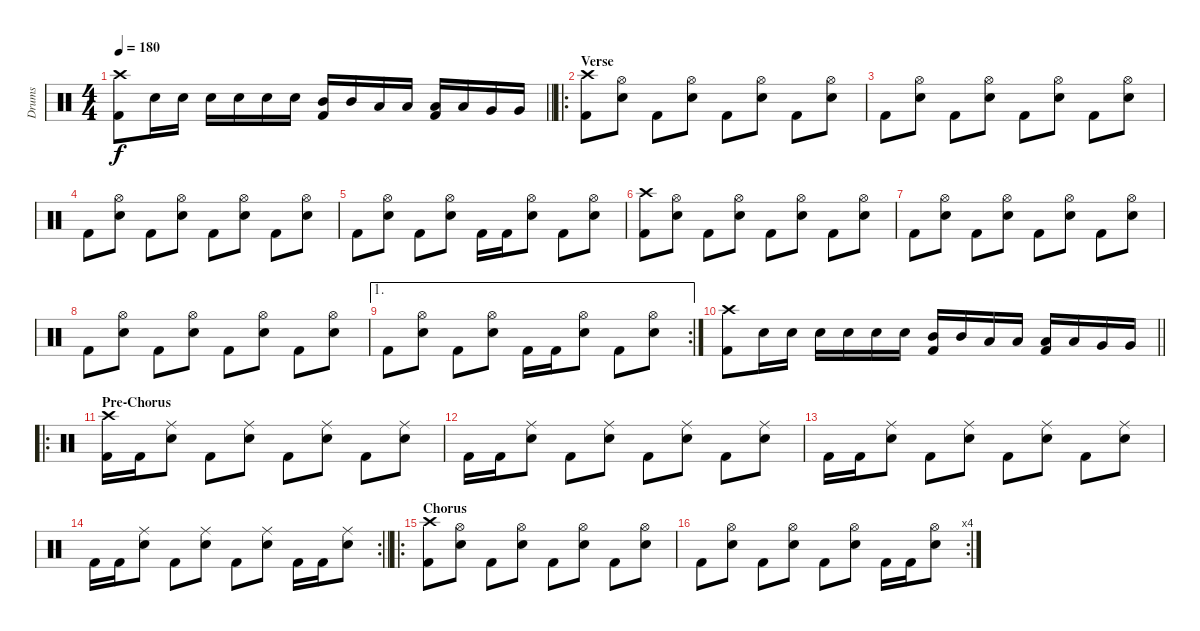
\track ("Drums" "Drums") {instrument percussion}
\staff {score}
\articulation defaults
\ts (4 4)
\tempo 180
\clef neutral
\barLineRight lightlight
\ks c
("Kick (hit) 2" "Crash high (hit)").8{dy f} "Electric Snare (hit)".16 "Electric Snare (hit)".16 "Electric Snare (hit)".16 "Electric Snare (hit)".16 "Electric Snare (hit)".16 "Electric Snare (hit)".16 ("Mid Tom (hit)" "Kick (hit) 2").16 "Mid Tom (hit)".16 "Low Tom (hit)".16 "Low Tom (hit)".16 ("Low Tom (hit)" "Kick (hit) 2").16 "Low Tom (hit)".16 "Very Low Tom (hit)".16 "Very Low Tom (hit)".16 |
\ro
\section ("" "Verse")
("Kick (hit) 2" "Crash high (hit)").8 ("Electric Snare (hit)" "Hi-Hat (open)").8 "Kick (hit) 2".8 ("Electric Snare (hit)" "Hi-Hat (open)").8 "Kick (hit) 2".8 ("Electric Snare (hit)" "Hi-Hat (open)").8 "Kick (hit) 2".8 ("Electric Snare (hit)" "Hi-Hat (open)").8 |
"Kick (hit) 2".8 ("Electric Snare (hit)" "Hi-Hat (open)").8 "Kick (hit) 2".8 ("Electric Snare (hit)" "Hi-Hat (open)").8 "Kick (hit) 2".8 ("Electric Snare (hit)" "Hi-Hat (open)").8 "Kick (hit) 2".8 ("Electric Snare (hit)" "Hi-Hat (open)").8 |
"Kick (hit) 2".8 ("Electric Snare (hit)" "Hi-Hat (open)").8 "Kick (hit) 2".8 ("Electric Snare (hit)" "Hi-Hat (open)").8 "Kick (hit) 2".8 ("Electric Snare (hit)" "Hi-Hat (open)").8 "Kick (hit) 2".8 ("Electric Snare (hit)" "Hi-Hat (open)").8 |
"Kick (hit) 2".8 ("Electric Snare (hit)" "Hi-Hat (open)").8 "Kick (hit) 2".8 ("Electric Snare (hit)" "Hi-Hat (open)").8 "Kick (hit) 2".16 "Kick (hit) 2".16 ("Electric Snare (hit)" "Hi-Hat (open)").8 "Kick (hit) 2".8 ("Electric Snare (hit)" "Hi-Hat (open)").8 |
("Kick (hit) 2" "Crash high (hit)").8 ("Electric Snare (hit)" "Hi-Hat (open)").8 "Kick (hit) 2".8 ("Electric Snare (hit)" "Hi-Hat (open)").8 "Kick (hit) 2".8 ("Electric Snare (hit)" "Hi-Hat (open)").8 "Kick (hit) 2".8 ("Electric Snare (hit)" "Hi-Hat (open)").8 |
"Kick (hit) 2".8 ("Electric Snare (hit)" "Hi-Hat (open)").8 "Kick (hit) 2".8 ("Electric Snare (hit)" "Hi-Hat (open)").8 "Kick (hit) 2".8 ("Electric Snare (hit)" "Hi-Hat (open)").8 "Kick (hit) 2".8 ("Electric Snare (hit)" "Hi-Hat (open)").8 |
"Kick (hit) 2".8 ("Electric Snare (hit)" "Hi-Hat (open)").8 "Kick (hit) 2".8 ("Electric Snare (hit)" "Hi-Hat (open)").8 "Kick (hit) 2".8 ("Electric Snare (hit)" "Hi-Hat (open)").8 "Kick (hit) 2".8 ("Electric Snare (hit)" "Hi-Hat (open)").8 |
\ae 1
\rc 2 "Kick (hit) 2".8
("Electric Snare (hit)" "Hi-Hat (open)").8 "Kick (hit) 2".8 ("Electric Snare (hit)" "Hi-Hat (open)").8 "Kick (hit) 2".16 "Kick (hit) 2".16 ("Electric Snare (hit)" "Hi-Hat (open)").8 "Kick (hit) 2".8 ("Electric Snare (hit)" "Hi-Hat (open)").8 |
\barLineRight lightlight
("Kick (hit) 2" "Crash high (hit)").8 "Electric Snare (hit)".16 "Electric Snare (hit)".16 "Electric Snare (hit)".16 "Electric Snare (hit)".16 "Electric Snare (hit)".16 "Electric Snare (hit)".16 ("Mid Tom (hit)" "Kick (hit) 2").16 "Mid Tom (hit)".16 "Low Tom (hit)".16 "Low Tom (hit)".16 ("Low Tom (hit)" "Kick (hit) 2").16 "Low Tom (hit)".16 "Very Low Tom (hit)".16 "Very Low Tom (hit)".16 |
\ro
\section ("" "Pre-Chorus")
("Kick (hit) 2" "Crash high (hit)").16 "Kick (hit) 2".16 ("Electric Snare (hit)" "Ride (middle)").8 "Kick (hit) 2".8 ("Electric Snare (hit)" "Ride (middle)").8 "Kick (hit) 2".8 ("Electric Snare (hit)" "Ride (middle)").8 "Kick (hit) 2".8 ("Electric Snare (hit)" "Ride (middle)").8 |
"Kick (hit) 2".16 "Kick (hit) 2".16 ("Electric Snare (hit)" "Ride (middle)").8 "Kick (hit) 2".8 ("Electric Snare (hit)" "Ride (middle)").8 "Kick (hit) 2".8 ("Electric Snare (hit)" "Ride (middle)").8 "Kick (hit) 2".8 ("Electric Snare (hit)" "Ride (middle)").8 |
"Kick (hit) 2".16 "Kick (hit) 2".16 ("Electric Snare (hit)" "Ride (middle)").8 "Kick (hit) 2".8 ("Electric Snare (hit)" "Ride (middle)").8 "Kick (hit) 2".8 ("Electric Snare (hit)" "Ride (middle)").8 "Kick (hit) 2".8 ("Electric Snare (hit)" "Ride (middle)").8 |
\rc 2
\barLineRight lightlight "Kick (hit) 2".16 "Kick (hit) 2".16
("Electric Snare (hit)" "Ride (middle)").8 "Kick (hit) 2".8 ("Electric Snare (hit)" "Ride (middle)").8 "Kick (hit) 2".8 ("Electric Snare (hit)" "Ride (middle)").8 "Kick (hit) 2".16 "Kick (hit) 2".16 ("Electric Snare (hit)" "Ride (middle)").8 |
\ro
\section ("" "Chorus")
("Kick (hit) 2" "Crash high (hit)").8 ("Electric Snare (hit)" "Hi-Hat (open)").8 "Kick (hit) 2".8 ("Electric Snare (hit)" "Hi-Hat (open)").8 "Kick (hit) 2".8 ("Electric Snare (hit)" "Hi-Hat (open)").8 "Kick (hit) 2".8 ("Electric Snare (hit)" "Hi-Hat (open)").8 |
\rc 4 "Kick (hit) 2".8
("Electric Snare (hit)" "Hi-Hat (open)").8 "Kick (hit) 2".8 ("Electric Snare (hit)" "Hi-Hat (open)").8 "Kick (hit) 2".8 ("Electric Snare (hit)" "Hi-Hat (open)").8 "Kick (hit) 2".16 "Kick (hit) 2".16 ("Electric Snare (hit)" "Hi-Hat (open)").8
